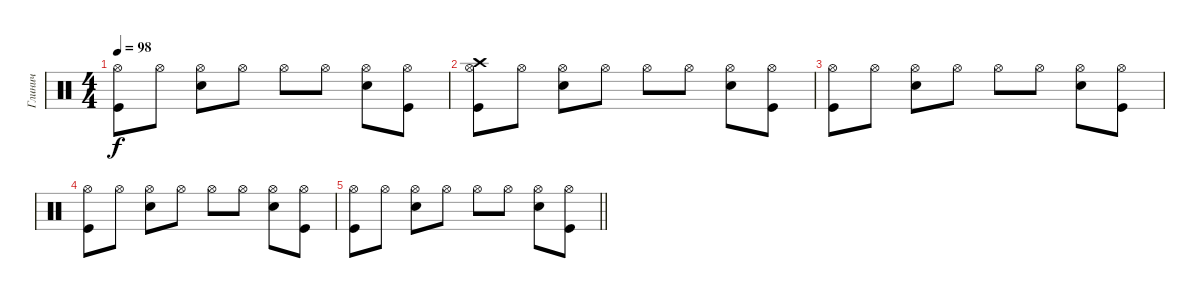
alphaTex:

\track ("Глинич" "Глинич") {instrument percussion}
\staff {score}
\articulation defaults
\ts (4 4)
\tempo 98
\clef neutral
\ks c
("Hi-Hat (open)" "Kick (hit)").8{dy f} "Hi-Hat (open)".8 ("Hi-Hat (open)" "Snare (hit) 2").8 "Hi-Hat (open)".8 "Hi-Hat (open)".8 "Hi-Hat (open)".8 ("Hi-Hat (open)" "Snare (hit) 2").8 ("Hi-Hat (open)" "Kick (hit)").8 |
("Hi-Hat (open)" "Kick (hit)" "Crash high (hit)").8 "Hi-Hat (open)".8 ("Hi-Hat (open)" "Snare (hit) 2").8 "Hi-Hat (open)".8 "Hi-Hat (open)".8 "Hi-Hat (open)".8 ("Hi-Hat (open)" "Snare (hit) 2").8 ("Hi-Hat (open)" "Kick (hit)").8 |
("Hi-Hat (open)" "Kick (hit)").8 "Hi-Hat (open)".8 ("Hi-Hat (open)" "Snare (hit) 2").8 "Hi-Hat (open)".8 "Hi-Hat (open)".8 "Hi-Hat (open)".8 ("Hi-Hat (open)" "Snare (hit) 2").8 ("Hi-Hat (open)" "Kick (hit)").8 |
("Hi-Hat (open)" "Kick (hit)").8 "Hi-Hat (open)".8 ("Hi-Hat (open)" "Snare (hit) 2").8 "Hi-Hat (open)".8 "Hi-Hat (open)".8 "Hi-Hat (open)".8 ("Hi-Hat (open)" "Snare (hit) 2").8 ("Hi-Hat (open)" "Kick (hit)").8 |
\barLineRight lightlight
("Hi-Hat (open)" "Kick (hit)").8 "Hi-Hat (open)".8 ("Hi-Hat (open)" "Snare (hit) 2").8 "Hi-Hat (open)".8 "Hi-Hat (open)".8 "Hi-Hat (open)".8 ("Hi-Hat (open)" "Snare (hit) 2").8 ("Hi-Hat (open)" "Kick (hit)").8
